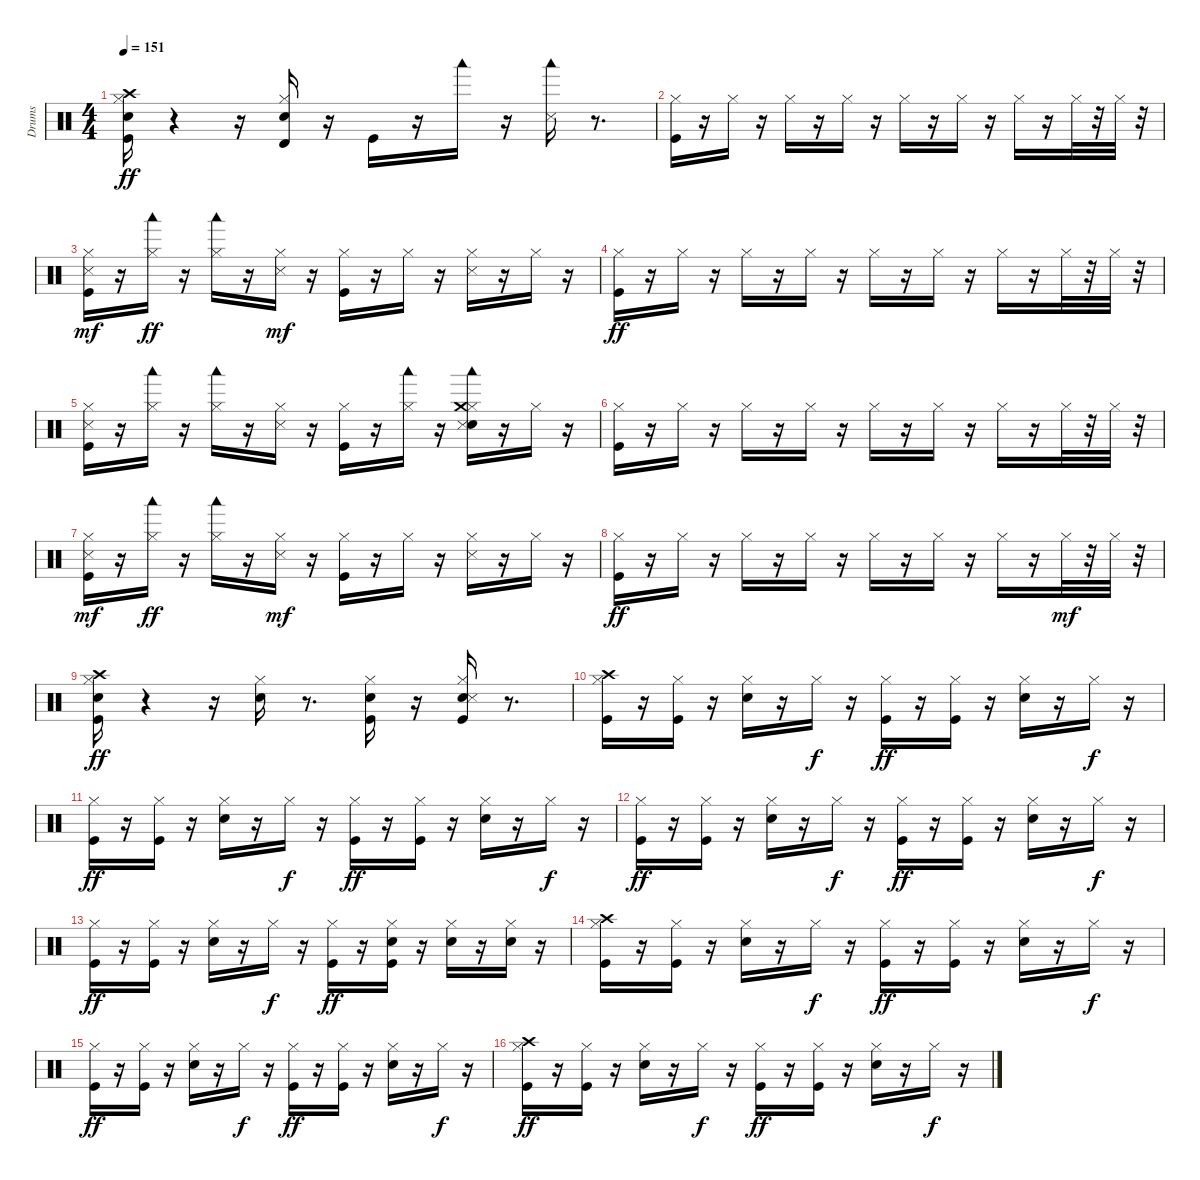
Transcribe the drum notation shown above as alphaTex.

\track ("Drums" "Drums") {instrument percussion}
\staff {score}
\articulation defaults
\ts (4 4)
\tempo 151
\clef neutral
\ks c
("Kick (hit)" "Snare (hit) 2" "Hi-Hat (closed)" "Crash high (hit)").16{dy ff} r.4 r.16 ("Snare (hit) 2" "Hi-Hat (closed)" "Timbale high (hit)").16 r.16 "Kick (hit)".16 r.16 "Woodblock low (hit)".16 r.16 ("Snare (side stick) 3" "Woodblock low (hit)").16 r.8{d} |
("Kick (hit)" "Hi-Hat (closed)").16 r.16 "Hi-Hat (closed)".16 r.16 "Hi-Hat (closed)".16 r.16 "Hi-Hat (closed)".16 r.16 "Hi-Hat (closed)".16 r.16 "Hi-Hat (closed)".16 r.16 "Hi-Hat (closed)".16 r.16 "Hi-Hat (closed)".32 r.32 "Hi-Hat (closed)".32 r.32 |
("Kick (hit)" "Snare (side stick) 3" "Hi-Hat (closed)").16{dy mf} r.16 ("Hi-Hat (closed)" "Woodblock low (hit)").16{dy ff} r.16 ("Hi-Hat (closed)" "Woodblock low (hit)").16 r.16 ("Snare (side stick) 3" "Hi-Hat (closed)").16{dy mf} r.16 ("Kick (hit)" "Hi-Hat (closed)").16 r.16 "Hi-Hat (closed)".16 r.16 ("Snare (side stick) 3" "Hi-Hat (closed)").16 r.16 "Hi-Hat (closed)".16 r.16 |
("Kick (hit)" "Hi-Hat (closed)").16{dy ff} r.16 "Hi-Hat (closed)".16 r.16 "Hi-Hat (closed)".16 r.16 "Hi-Hat (closed)".16 r.16 "Hi-Hat (closed)".16 r.16 "Hi-Hat (closed)".16 r.16 "Hi-Hat (closed)".16 r.16 "Hi-Hat (closed)".32 r.32 "Hi-Hat (closed)".32 r.32 |
("Kick (hit)" "Snare (side stick) 3" "Hi-Hat (closed)").16 r.16 ("Hi-Hat (closed)" "Woodblock low (hit)").16 r.16 ("Hi-Hat (closed)" "Woodblock low (hit)").16 r.16 ("Snare (side stick) 3" "Hi-Hat (closed)").16 r.16 ("Kick (hit)" "Hi-Hat (closed)").16 r.16 ("Hi-Hat (closed)" "Woodblock low (hit)").16 r.16 ("Snare (hit) 2" "Snare (side stick) 3" "Hi-Hat (closed)" "Crash medium (hit)" "Woodblock low (hit)").16 r.16 "Hi-Hat (closed)".16 r.16 |
("Kick (hit)" "Hi-Hat (closed)").16 r.16 "Hi-Hat (closed)".16 r.16 "Hi-Hat (closed)".16 r.16 "Hi-Hat (closed)".16 r.16 "Hi-Hat (closed)".16 r.16 "Hi-Hat (closed)".16 r.16 "Hi-Hat (closed)".16 r.16 "Hi-Hat (closed)".32 r.32 "Hi-Hat (closed)".32 r.32 |
("Kick (hit)" "Snare (side stick) 3" "Hi-Hat (closed)").16{dy mf} r.16 ("Hi-Hat (closed)" "Woodblock low (hit)").16{dy ff} r.16 ("Hi-Hat (closed)" "Woodblock low (hit)").16 r.16 ("Snare (side stick) 3" "Hi-Hat (closed)").16{dy mf} r.16 ("Kick (hit)" "Hi-Hat (closed)").16 r.16 "Hi-Hat (closed)".16 r.16 ("Snare (side stick) 3" "Hi-Hat (closed)").16 r.16 "Hi-Hat (closed)".16 r.16 |
("Kick (hit)" "Hi-Hat (closed)").16{dy ff} r.16 "Hi-Hat (closed)".16 r.16 "Hi-Hat (closed)".16 r.16 "Hi-Hat (closed)".16 r.16 "Hi-Hat (closed)".16 r.16 "Hi-Hat (closed)".16 r.16 "Hi-Hat (closed)".16 r.16 "Hi-Hat (closed)".32{dy mf} r.32 "Hi-Hat (closed)".32 r.32 |
("Kick (hit)" "Snare (hit) 2" "Hi-Hat (closed)" "Crash high (hit)").16{dy ff} r.4 r.16 ("Snare (hit) 2" "Hi-Hat (closed)").16 r.8{d} ("Kick (hit)" "Snare (hit) 2" "Hi-Hat (closed)").16 r.16 ("Kick (hit)" "Snare (hit) 2" "Snare (side stick) 3" "Hi-Hat (closed)").16 r.8{d} |
("Kick (hit)" "Hi-Hat (closed)" "Crash high (hit)").16 r.16 ("Kick (hit)" "Hi-Hat (closed)").16 r.16 ("Snare (hit) 2" "Hi-Hat (closed)").16 r.16 "Hi-Hat (closed)".16{dy f} r.16 ("Kick (hit)" "Hi-Hat (closed)").16{dy ff} r.16 ("Kick (hit)" "Hi-Hat (closed)").16 r.16 ("Snare (hit) 2" "Hi-Hat (closed)").16 r.16 "Hi-Hat (closed)".16{dy f} r.16 |
("Kick (hit)" "Hi-Hat (closed)").16{dy ff} r.16 ("Kick (hit)" "Hi-Hat (closed)").16 r.16 ("Snare (hit) 2" "Hi-Hat (closed)").16 r.16 "Hi-Hat (closed)".16{dy f} r.16 ("Kick (hit)" "Hi-Hat (closed)").16{dy ff} r.16 ("Kick (hit)" "Hi-Hat (closed)").16 r.16 ("Snare (hit) 2" "Hi-Hat (closed)").16 r.16 "Hi-Hat (closed)".16{dy f} r.16 |
("Kick (hit)" "Hi-Hat (closed)").16{dy ff} r.16 ("Kick (hit)" "Hi-Hat (closed)").16 r.16 ("Snare (hit) 2" "Hi-Hat (closed)").16 r.16 "Hi-Hat (closed)".16{dy f} r.16 ("Kick (hit)" "Hi-Hat (closed)").16{dy ff} r.16 ("Kick (hit)" "Hi-Hat (closed)").16 r.16 ("Snare (hit) 2" "Hi-Hat (closed)").16 r.16 "Hi-Hat (closed)".16{dy f} r.16 |
("Kick (hit)" "Hi-Hat (closed)").16{dy ff} r.16 ("Kick (hit)" "Hi-Hat (closed)").16 r.16 ("Snare (hit) 2" "Hi-Hat (closed)").16 r.16 "Hi-Hat (closed)".16{dy f} r.16 ("Kick (hit)" "Hi-Hat (closed)").16{dy ff} r.16 ("Kick (hit)" "Snare (hit) 2" "Hi-Hat (closed)").16 r.16 ("Snare (hit) 2" "Hi-Hat (closed)").16 r.16 ("Snare (hit) 2" "Hi-Hat (closed)").16 r.16 |
("Kick (hit)" "Hi-Hat (closed)" "Crash high (hit)").16 r.16 ("Kick (hit)" "Hi-Hat (closed)").16 r.16 ("Snare (hit) 2" "Hi-Hat (closed)").16 r.16 "Hi-Hat (closed)".16{dy f} r.16 ("Kick (hit)" "Hi-Hat (closed)").16{dy ff} r.16 ("Kick (hit)" "Hi-Hat (closed)").16 r.16 ("Snare (hit) 2" "Hi-Hat (closed)").16 r.16 "Hi-Hat (closed)".16{dy f} r.16 |
("Kick (hit)" "Hi-Hat (closed)").16{dy ff} r.16 ("Kick (hit)" "Hi-Hat (closed)").16 r.16 ("Snare (hit) 2" "Hi-Hat (closed)").16 r.16 "Hi-Hat (closed)".16{dy f} r.16 ("Kick (hit)" "Hi-Hat (closed)").16{dy ff} r.16 ("Kick (hit)" "Hi-Hat (closed)").16 r.16 ("Snare (hit) 2" "Hi-Hat (closed)").16 r.16 "Hi-Hat (closed)".16{dy f} r.16 |
("Kick (hit)" "Hi-Hat (closed)" "Crash high (hit)").16{dy ff} r.16 ("Kick (hit)" "Hi-Hat (closed)").16 r.16 ("Snare (hit) 2" "Hi-Hat (closed)").16 r.16 "Hi-Hat (closed)".16{dy f} r.16 ("Kick (hit)" "Hi-Hat (closed)").16{dy ff} r.16 ("Kick (hit)" "Hi-Hat (closed)").16 r.16 ("Snare (hit) 2" "Hi-Hat (closed)").16 r.16 "Hi-Hat (closed)".16{dy f} r.16
